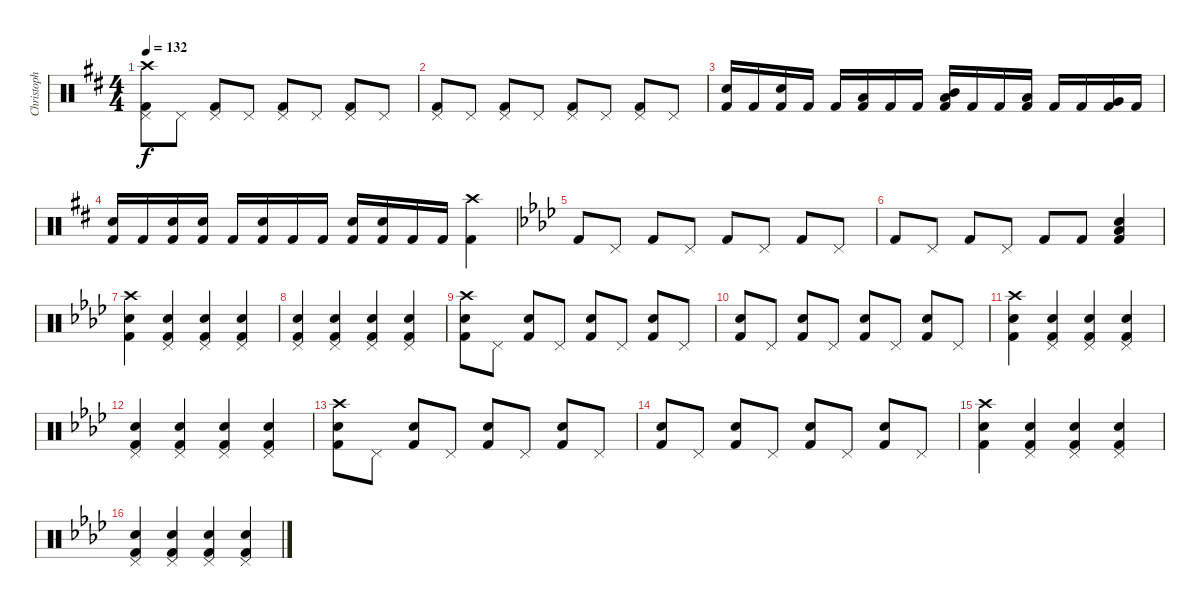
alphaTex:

\track ("Christoph Doom Schneider - Drums" "Christoph ") {instrument percussion}
\staff {score}
\articulation defaults
\ts (4 4)
\tempo 132
\clef neutral
\ks d
("Crash high (hit)" "Pedal Hi-Hat (hit)" "Kick (hit) 2").8{dy f} "Pedal Hi-Hat (hit)".8 ("Pedal Hi-Hat (hit)" "Kick (hit) 2").8 "Pedal Hi-Hat (hit)".8 ("Pedal Hi-Hat (hit)" "Kick (hit) 2").8 "Pedal Hi-Hat (hit)".8 ("Pedal Hi-Hat (hit)" "Kick (hit) 2").8 "Pedal Hi-Hat (hit)".8 |
("Pedal Hi-Hat (hit)" "Kick (hit) 2").8 "Pedal Hi-Hat (hit)".8 ("Pedal Hi-Hat (hit)" "Kick (hit) 2").8 "Pedal Hi-Hat (hit)".8 ("Pedal Hi-Hat (hit)" "Kick (hit) 2").8 "Pedal Hi-Hat (hit)".8 ("Pedal Hi-Hat (hit)" "Kick (hit) 2").8 "Pedal Hi-Hat (hit)".8 |
("Snare (hit) 2" "Kick (hit) 2").16 "Kick (hit) 2".16 ("Snare (hit) 2" "Kick (hit) 2").16 "Kick (hit) 2".16 "Kick (hit) 2".16 ("Low Tom (hit)" "Kick (hit) 2").16 "Kick (hit) 2".16 "Kick (hit) 2".16 ("Mid Tom (hit)" "Low Floor Tom (hit)" "Kick (hit) 2").16 "Kick (hit) 2".16 "Kick (hit) 2".16 ("Low Floor Tom (hit)" "Kick (hit) 2").16 "Kick (hit) 2".16 "Kick (hit) 2".16 ("Very Low Tom (hit)" "Kick (hit) 2").16 "Kick (hit) 2".16 |
("Snare (hit) 2" "Kick (hit) 2").16 "Kick (hit) 2".16 ("Snare (hit) 2" "Kick (hit) 2").16 ("Snare (hit) 2" "Kick (hit) 2").16 "Kick (hit) 2".16 ("Snare (hit) 2" "Kick (hit) 2").16 "Kick (hit) 2".16 "Kick (hit) 2".16 ("Snare (hit) 2" "Kick (hit) 2").16 ("Snare (hit) 2" "Kick (hit) 2").16 "Kick (hit) 2".16 "Kick (hit) 2".16 ("Crash high (hit)" "Kick (hit) 2").4 |
\ks fminor "Kick (hit) 2".8 "Pedal Hi-Hat (hit)".8 "Kick (hit) 2".8 "Pedal Hi-Hat (hit)".8 "Kick (hit) 2".8 "Pedal Hi-Hat (hit)".8 "Kick (hit) 2".8 "Pedal Hi-Hat (hit)".8
|
"Kick (hit) 2".8 "Pedal Hi-Hat (hit)".8 "Kick (hit) 2".8 "Pedal Hi-Hat (hit)".8 "Kick (hit) 2".8 "Kick (hit) 2".8 ("Snare (hit) 2" "Low Floor Tom (hit)" "Kick (hit) 2").4 |
("Crash high (hit)" "Snare (hit) 2" "Kick (hit) 2").4 ("Pedal Hi-Hat (hit)" "Snare (hit) 2" "Kick (hit) 2").4 ("Pedal Hi-Hat (hit)" "Snare (hit) 2" "Kick (hit) 2").4 ("Pedal Hi-Hat (hit)" "Snare (hit) 2" "Kick (hit) 2").4 |
("Pedal Hi-Hat (hit)" "Snare (hit) 2" "Kick (hit) 2").4 ("Pedal Hi-Hat (hit)" "Snare (hit) 2" "Kick (hit) 2").4 ("Pedal Hi-Hat (hit)" "Snare (hit) 2" "Kick (hit) 2").4 ("Pedal Hi-Hat (hit)" "Snare (hit) 2" "Kick (hit) 2").4 |
("Crash high (hit)" "Snare (hit) 2" "Kick (hit) 2").8 "Pedal Hi-Hat (hit)".8 ("Snare (hit) 2" "Kick (hit) 2").8 "Pedal Hi-Hat (hit)".8 ("Snare (hit) 2" "Kick (hit) 2").8 "Pedal Hi-Hat (hit)".8 ("Snare (hit) 2" "Kick (hit) 2").8 "Pedal Hi-Hat (hit)".8 |
("Snare (hit) 2" "Kick (hit) 2").8 "Pedal Hi-Hat (hit)".8 ("Snare (hit) 2" "Kick (hit) 2").8 "Pedal Hi-Hat (hit)".8 ("Snare (hit) 2" "Kick (hit) 2").8 "Pedal Hi-Hat (hit)".8 ("Snare (hit) 2" "Kick (hit) 2").8 "Pedal Hi-Hat (hit)".8 |
("Crash high (hit)" "Snare (hit) 2" "Kick (hit) 2").4 ("Pedal Hi-Hat (hit)" "Snare (hit) 2" "Kick (hit) 2").4 ("Pedal Hi-Hat (hit)" "Snare (hit) 2" "Kick (hit) 2").4 ("Pedal Hi-Hat (hit)" "Snare (hit) 2" "Kick (hit) 2").4 |
("Pedal Hi-Hat (hit)" "Snare (hit) 2" "Kick (hit) 2").4 ("Pedal Hi-Hat (hit)" "Snare (hit) 2" "Kick (hit) 2").4 ("Pedal Hi-Hat (hit)" "Snare (hit) 2" "Kick (hit) 2").4 ("Pedal Hi-Hat (hit)" "Snare (hit) 2" "Kick (hit) 2").4 |
("Crash high (hit)" "Snare (hit) 2" "Kick (hit) 2").8 "Pedal Hi-Hat (hit)".8 ("Snare (hit) 2" "Kick (hit) 2").8 "Pedal Hi-Hat (hit)".8 ("Snare (hit) 2" "Kick (hit) 2").8 "Pedal Hi-Hat (hit)".8 ("Snare (hit) 2" "Kick (hit) 2").8 "Pedal Hi-Hat (hit)".8 |
("Snare (hit) 2" "Kick (hit) 2").8 "Pedal Hi-Hat (hit)".8 ("Snare (hit) 2" "Kick (hit) 2").8 "Pedal Hi-Hat (hit)".8 ("Snare (hit) 2" "Kick (hit) 2").8 "Pedal Hi-Hat (hit)".8 ("Snare (hit) 2" "Kick (hit) 2").8 "Pedal Hi-Hat (hit)".8 |
("Crash high (hit)" "Snare (hit) 2" "Kick (hit) 2").4 ("Pedal Hi-Hat (hit)" "Snare (hit) 2" "Kick (hit) 2").4 ("Pedal Hi-Hat (hit)" "Snare (hit) 2" "Kick (hit) 2").4 ("Pedal Hi-Hat (hit)" "Snare (hit) 2" "Kick (hit) 2").4 |
("Pedal Hi-Hat (hit)" "Snare (hit) 2" "Kick (hit) 2").4 ("Pedal Hi-Hat (hit)" "Snare (hit) 2" "Kick (hit) 2").4 ("Pedal Hi-Hat (hit)" "Snare (hit) 2" "Kick (hit) 2").4 ("Pedal Hi-Hat (hit)" "Snare (hit) 2" "Kick (hit) 2").4
